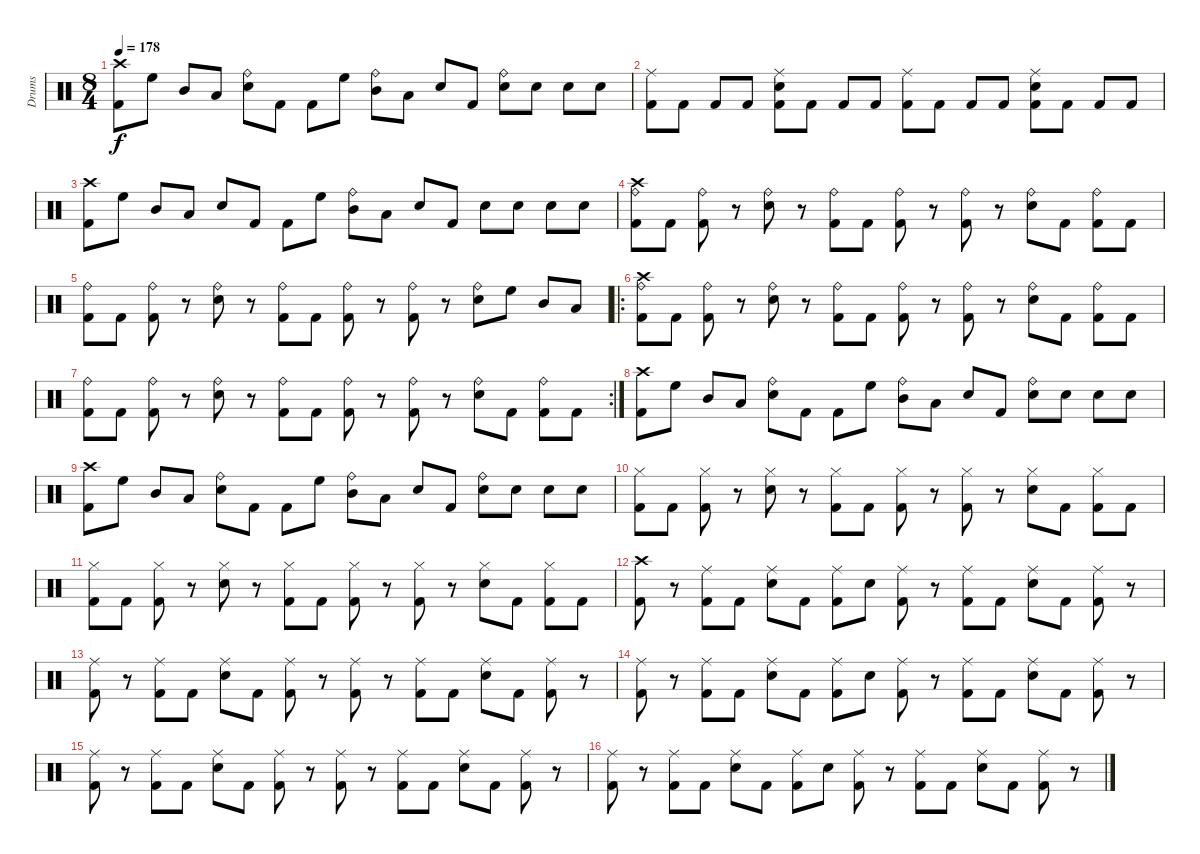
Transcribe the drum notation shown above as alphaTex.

\track ("Drums" "Drums") {instrument percussion}
\staff {score}
\articulation defaults
\ts (8 4)
\tempo 178
\clef neutral
\ks c
("Crash high (hit)" "Kick (hit) 2").8{dy f} "High Floor Tom (hit)".8 "Mid Tom (hit)".8 "Low Tom (hit)".8 ("Ride (bell)" "Snare (hit) 2").8 "Kick (hit) 2".8 "Kick (hit) 2".8 "High Floor Tom (hit)".8 ("Ride (bell)" "Mid Tom (hit)").8 "Low Tom (hit)".8 "Snare (hit) 2".8 "Kick (hit) 2".8 ("Ride (bell)" "Snare (hit) 2").8 "Snare (hit) 2".8 "Snare (hit) 2".8 "Snare (hit) 2".8 |
("Ride (middle)" "Kick (hit) 2").8 "Kick (hit) 2".8 "Kick (hit) 2".8 "Kick (hit) 2".8 ("Ride (middle)" "Snare (hit) 2" "Kick (hit) 2").8 "Kick (hit) 2".8 "Kick (hit) 2".8 "Kick (hit) 2".8 ("Ride (middle)" "Kick (hit) 2").8 "Kick (hit) 2".8 "Kick (hit) 2".8 "Kick (hit) 2".8 ("Ride (middle)" "Snare (hit) 2" "Kick (hit) 2").8 "Kick (hit) 2".8 "Kick (hit) 2".8 "Kick (hit) 2".8 |
("Crash high (hit)" "Kick (hit) 2").8 "High Floor Tom (hit)".8 "Mid Tom (hit)".8 "Low Tom (hit)".8 "Snare (hit) 2".8 "Kick (hit) 2".8 "Kick (hit) 2".8 "High Floor Tom (hit)".8 ("Ride (bell)" "Mid Tom (hit)").8 "Low Tom (hit)".8 "Snare (hit) 2".8 "Kick (hit) 2".8 "Snare (hit) 2".8 "Snare (hit) 2".8 "Snare (hit) 2".8 "Snare (hit) 2".8 |
("Crash high (hit)" "Kick (hit) 2" "Ride (bell)").8 "Kick (hit) 2".8 ("Kick (hit) 2" "Ride (bell)").8 r.8 ("Snare (hit) 2" "Ride (bell)").8 r.8 ("Kick (hit) 2" "Ride (bell)").8 "Kick (hit) 2".8 ("Kick (hit) 2" "Ride (bell)").8 r.8 ("Kick (hit) 2" "Ride (bell)").8 r.8 ("Snare (hit) 2" "Ride (bell)").8 "Kick (hit) 2".8 ("Kick (hit) 2" "Ride (bell)").8 "Kick (hit) 2".8 |
("Kick (hit) 2" "Ride (bell)").8 "Kick (hit) 2".8 ("Kick (hit) 2" "Ride (bell)").8 r.8 ("Snare (hit) 2" "Ride (bell)").8 r.8 ("Kick (hit) 2" "Ride (bell)").8 "Kick (hit) 2".8 ("Kick (hit) 2" "Ride (bell)").8 r.8 ("Kick (hit) 2" "Ride (bell)").8 r.8 ("Snare (hit) 2" "Ride (bell)").8 "High Floor Tom (hit)".8 "Mid Tom (hit)".8 "Low Tom (hit)".8 |
\ro
("Crash high (hit)" "Kick (hit) 2" "Ride (bell)").8 "Kick (hit) 2".8 ("Kick (hit) 2" "Ride (bell)").8 r.8 ("Snare (hit) 2" "Ride (bell)").8 r.8 ("Kick (hit) 2" "Ride (bell)").8 "Kick (hit) 2".8 ("Kick (hit) 2" "Ride (bell)").8 r.8 ("Kick (hit) 2" "Ride (bell)").8 r.8 ("Snare (hit) 2" "Ride (bell)").8 "Kick (hit) 2".8 ("Kick (hit) 2" "Ride (bell)").8 "Kick (hit) 2".8 |
\rc 2
("Kick (hit) 2" "Ride (bell)").8 "Kick (hit) 2".8 ("Kick (hit) 2" "Ride (bell)").8 r.8 ("Snare (hit) 2" "Ride (bell)").8 r.8 ("Kick (hit) 2" "Ride (bell)").8 "Kick (hit) 2".8 ("Kick (hit) 2" "Ride (bell)").8 r.8 ("Kick (hit) 2" "Ride (bell)").8 r.8 ("Snare (hit) 2" "Ride (bell)").8 "Kick (hit) 2".8 ("Kick (hit) 2" "Ride (bell)").8 "Kick (hit) 2".8 |
("Crash high (hit)" "Kick (hit) 2").8 "High Floor Tom (hit)".8 "Mid Tom (hit)".8 "Low Tom (hit)".8 ("Ride (bell)" "Snare (hit) 2").8 "Kick (hit) 2".8 "Kick (hit) 2".8 "High Floor Tom (hit)".8 ("Ride (bell)" "Mid Tom (hit)").8 "Low Tom (hit)".8 "Snare (hit) 2".8 "Kick (hit) 2".8 ("Ride (bell)" "Snare (hit) 2").8 "Snare (hit) 2".8 "Snare (hit) 2".8 "Snare (hit) 2".8 |
("Crash high (hit)" "Kick (hit) 2").8 "High Floor Tom (hit)".8 "Mid Tom (hit)".8 "Low Tom (hit)".8 ("Ride (bell)" "Snare (hit) 2").8 "Kick (hit) 2".8 "Kick (hit) 2".8 "High Floor Tom (hit)".8 ("Ride (bell)" "Mid Tom (hit)").8 "Low Tom (hit)".8 "Snare (hit) 2".8 "Kick (hit) 2".8 ("Ride (bell)" "Snare (hit) 2").8 "Snare (hit) 2".8 "Snare (hit) 2".8 "Snare (hit) 2".8 |
("Kick (hit) 2" "Hi-Hat (closed)").8 "Kick (hit) 2".8 ("Kick (hit) 2" "Hi-Hat (closed)").8 r.8 ("Snare (hit) 2" "Hi-Hat (closed)").8 r.8 ("Kick (hit) 2" "Hi-Hat (closed)").8 "Kick (hit) 2".8 ("Kick (hit) 2" "Hi-Hat (closed)").8 r.8 ("Kick (hit) 2" "Hi-Hat (closed)").8 r.8 ("Snare (hit) 2" "Hi-Hat (closed)").8 "Kick (hit) 2".8 ("Kick (hit) 2" "Hi-Hat (closed)").8 "Kick (hit) 2".8 |
("Kick (hit) 2" "Hi-Hat (closed)").8 "Kick (hit) 2".8 ("Kick (hit) 2" "Hi-Hat (closed)").8 r.8 ("Snare (hit) 2" "Hi-Hat (closed)").8 r.8 ("Kick (hit) 2" "Hi-Hat (closed)").8 "Kick (hit) 2".8 ("Kick (hit) 2" "Hi-Hat (closed)").8 r.8 ("Kick (hit) 2" "Hi-Hat (closed)").8 r.8 ("Snare (hit) 2" "Hi-Hat (closed)").8 "Kick (hit) 2".8 ("Kick (hit) 2" "Hi-Hat (closed)").8 "Kick (hit) 2".8 |
("Crash high (hit)" "Kick (hit) 2").8 r.8 ("Ride (middle)" "Kick (hit) 2").8 "Kick (hit) 2".8 ("Ride (middle)" "Snare (hit) 2").8 "Kick (hit) 2".8 ("Ride (middle)" "Kick (hit) 2").8 "Snare (hit) 2".8 ("Ride (middle)" "Kick (hit) 2").8 r.8 ("Ride (middle)" "Kick (hit) 2").8 "Kick (hit) 2".8 ("Ride (middle)" "Snare (hit) 2").8 "Kick (hit) 2".8 ("Ride (middle)" "Kick (hit) 2").8 r.8 |
("Ride (middle)" "Kick (hit) 2").8 r.8 ("Ride (middle)" "Kick (hit) 2").8 "Kick (hit) 2".8 ("Ride (middle)" "Snare (hit) 2").8 "Kick (hit) 2".8 ("Ride (middle)" "Kick (hit) 2").8 r.8 ("Ride (middle)" "Kick (hit) 2").8 r.8 ("Ride (middle)" "Kick (hit) 2").8 "Kick (hit) 2".8 ("Ride (middle)" "Snare (hit) 2").8 "Kick (hit) 2".8 ("Ride (middle)" "Kick (hit) 2").8 r.8 |
("Ride (middle)" "Kick (hit) 2").8 r.8 ("Ride (middle)" "Kick (hit) 2").8 "Kick (hit) 2".8 ("Ride (middle)" "Snare (hit) 2").8 "Kick (hit) 2".8 ("Ride (middle)" "Kick (hit) 2").8 "Snare (hit) 2".8 ("Ride (middle)" "Kick (hit) 2").8 r.8 ("Ride (middle)" "Kick (hit) 2").8 "Kick (hit) 2".8 ("Ride (middle)" "Snare (hit) 2").8 "Kick (hit) 2".8 ("Ride (middle)" "Kick (hit) 2").8 r.8 |
("Ride (middle)" "Kick (hit) 2").8 r.8 ("Ride (middle)" "Kick (hit) 2").8 "Kick (hit) 2".8 ("Ride (middle)" "Snare (hit) 2").8 "Kick (hit) 2".8 ("Ride (middle)" "Kick (hit) 2").8 r.8 ("Ride (middle)" "Kick (hit) 2").8 r.8 ("Ride (middle)" "Kick (hit) 2").8 "Kick (hit) 2".8 ("Ride (middle)" "Snare (hit) 2").8 "Kick (hit) 2".8 ("Ride (middle)" "Kick (hit) 2").8 r.8 |
("Ride (middle)" "Kick (hit) 2").8 r.8 ("Ride (middle)" "Kick (hit) 2").8 "Kick (hit) 2".8 ("Ride (middle)" "Snare (hit) 2").8 "Kick (hit) 2".8 ("Ride (middle)" "Kick (hit) 2").8 "Snare (hit) 2".8 ("Ride (middle)" "Kick (hit) 2").8 r.8 ("Ride (middle)" "Kick (hit) 2").8 "Kick (hit) 2".8 ("Ride (middle)" "Snare (hit) 2").8 "Kick (hit) 2".8 ("Ride (middle)" "Kick (hit) 2").8 r.8
